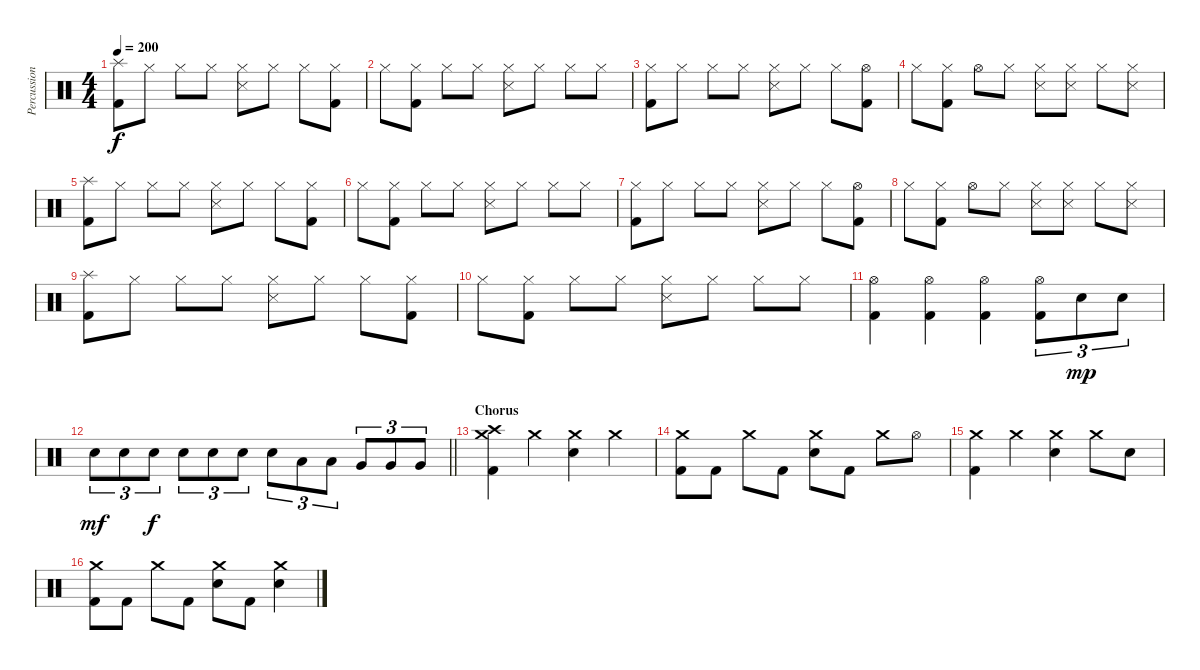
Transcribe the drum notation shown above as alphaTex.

\track ("Percussion" "Percussion") {instrument percussion}
\staff {score}
\articulation defaults
\ts (4 4)
\tempo 200
\clef neutral
\ks c
("Splash (hit)" "Kick (hit) 2").8{dy f} "Hi-Hat (closed)".8 "Hi-Hat (closed)".8 "Hi-Hat (closed)".8 ("Hi-Hat (closed)" "Snare (side stick) 3").8 "Hi-Hat (closed)".8 "Hi-Hat (closed)".8 ("Hi-Hat (closed)" "Kick (hit) 2").8 |
"Hi-Hat (closed)".8 ("Hi-Hat (closed)" "Kick (hit) 2").8 "Hi-Hat (closed)".8 "Hi-Hat (closed)".8 ("Hi-Hat (closed)" "Snare (side stick) 3").8 "Hi-Hat (closed)".8 "Hi-Hat (closed)".8 "Hi-Hat (closed)".8 |
("Hi-Hat (closed)" "Kick (hit) 2").8 "Hi-Hat (closed)".8 "Hi-Hat (closed)".8 "Hi-Hat (closed)".8 ("Hi-Hat (closed)" "Snare (side stick) 3").8 "Hi-Hat (closed)".8 "Hi-Hat (closed)".8 ("Hi-Hat (open)" "Kick (hit) 2").8 |
"Hi-Hat (closed)".8 ("Hi-Hat (closed)" "Kick (hit) 2").8 "Hi-Hat (open)".8 "Hi-Hat (closed)".8 ("Hi-Hat (closed)" "Snare (side stick) 3").8 ("Hi-Hat (closed)" "Snare (side stick) 3").8 "Hi-Hat (closed)".8 ("Hi-Hat (closed)" "Snare (side stick) 3").8 |
("Splash (hit)" "Kick (hit) 2").8 "Hi-Hat (closed)".8 "Hi-Hat (closed)".8 "Hi-Hat (closed)".8 ("Hi-Hat (closed)" "Snare (side stick) 3").8 "Hi-Hat (closed)".8 "Hi-Hat (closed)".8 ("Hi-Hat (closed)" "Kick (hit) 2").8 |
"Hi-Hat (closed)".8 ("Hi-Hat (closed)" "Kick (hit) 2").8 "Hi-Hat (closed)".8 "Hi-Hat (closed)".8 ("Hi-Hat (closed)" "Snare (side stick) 3").8 "Hi-Hat (closed)".8 "Hi-Hat (closed)".8 "Hi-Hat (closed)".8 |
("Hi-Hat (closed)" "Kick (hit) 2").8 "Hi-Hat (closed)".8 "Hi-Hat (closed)".8 "Hi-Hat (closed)".8 ("Hi-Hat (closed)" "Snare (side stick) 3").8 "Hi-Hat (closed)".8 "Hi-Hat (closed)".8 ("Hi-Hat (open)" "Kick (hit) 2").8 |
"Hi-Hat (closed)".8 ("Hi-Hat (closed)" "Kick (hit) 2").8 "Hi-Hat (open)".8 "Hi-Hat (closed)".8 ("Hi-Hat (closed)" "Snare (side stick) 3").8 ("Hi-Hat (closed)" "Snare (side stick) 3").8 "Hi-Hat (closed)".8 ("Hi-Hat (closed)" "Snare (side stick) 3").8 |
("Splash (hit)" "Kick (hit) 2").8 "Hi-Hat (closed)".8 "Hi-Hat (closed)".8 "Hi-Hat (closed)".8 ("Hi-Hat (closed)" "Snare (side stick) 3").8 "Hi-Hat (closed)".8 "Hi-Hat (closed)".8 ("Hi-Hat (closed)" "Kick (hit) 2").8 |
"Hi-Hat (closed)".8 ("Hi-Hat (closed)" "Kick (hit) 2").8 "Hi-Hat (closed)".8 "Hi-Hat (closed)".8 ("Hi-Hat (closed)" "Snare (side stick) 3").8 "Hi-Hat (closed)".8 "Hi-Hat (closed)".8 "Hi-Hat (closed)".8 |
("Hi-Hat (open)" "Kick (hit) 2").4 ("Hi-Hat (open)" "Kick (hit) 2").4 ("Hi-Hat (open)" "Kick (hit) 2").4 ("Hi-Hat (open)" "Kick (hit) 2").8{tu (3 2)} "Electric Snare (hit)".8{tu (3 2) dy mp} "Electric Snare (hit)".8{tu (3 2)} |
\barLineRight lightlight "Electric Snare (hit)".8{tu (3 2) dy mf} "Electric Snare (hit)".8{tu (3 2)} "Electric Snare (hit)".8{tu (3 2) dy f} "Electric Snare (hit)".8{tu (3 2)} "Electric Snare (hit)".8{tu (3 2)} "Electric Snare (hit)".8{tu (3 2)} "Electric Snare (hit)".8{tu (3 2)} "Low Tom (hit)".8{tu (3 2)} "Low Tom (hit)".8{tu (3 2)} "Very Low Tom (hit)".8{tu (3 2)} "Very Low Tom (hit)".8{tu (3 2)} "Very Low Tom (hit)".8{tu (3 2)}
|
\section ("" "Chorus")
("Crash medium (hit)" "Crash high (hit)" "Kick (hit) 2").4 "Crash medium (hit)".4 ("Crash medium (hit)" "Electric Snare (hit)").4 "Crash medium (hit)".4 |
("Crash medium (hit)" "Kick (hit) 2").8 "Kick (hit) 2".8 "Crash medium (hit)".8 "Kick (hit) 2".8 ("Crash medium (hit)" "Electric Snare (hit)").8 "Kick (hit) 2".8 "Crash medium (hit)".8 "Hi-Hat (open)".8 |
("Crash medium (hit)" "Kick (hit) 2").4 "Crash medium (hit)".4 ("Crash medium (hit)" "Electric Snare (hit)").4 "Crash medium (hit)".8 "Electric Snare (hit)".8 |
("Crash medium (hit)" "Kick (hit) 2").8 "Kick (hit) 2".8 "Crash medium (hit)".8 "Kick (hit) 2".8 ("Crash medium (hit)" "Electric Snare (hit)").8 "Kick (hit) 2".8 ("Crash medium (hit)" "Electric Snare (hit)").4
